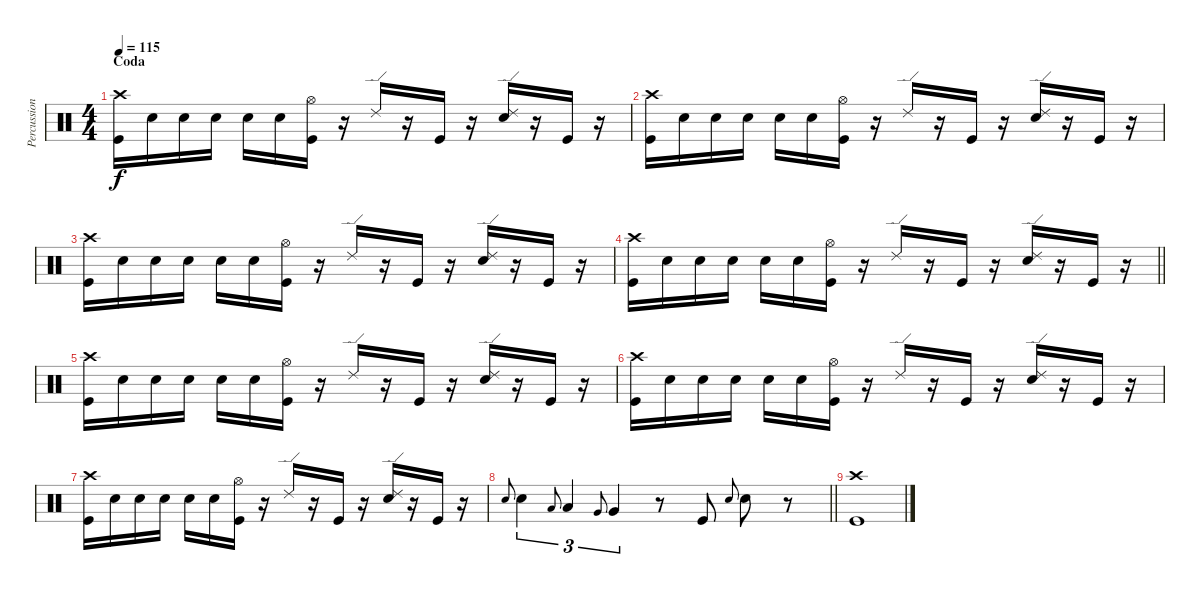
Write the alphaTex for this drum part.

\track ("Percussion" "Percussion") {instrument percussion}
\staff {score}
\articulation defaults
\ts (4 4)
\section ("" "Coda")
\tempo 115
\clef neutral
\ks c
("Crash high (hit)" "Kick (hit)").16{dy f} "Electric Snare (hit)".16 "Electric Snare (hit)".16 "Electric Snare (hit)".16 "Electric Snare (hit)".16 "Electric Snare (hit)".16 ("Hi-Hat (open)" "Kick (hit)").16 r.16 "Ride (edge) 2".16 r.16 "Kick (hit)".16 r.16 ("Ride (edge) 2" "Electric Snare (hit)").16 r.16 "Kick (hit)".16 r.16 |
("Crash high (hit)" "Kick (hit)").16 "Electric Snare (hit)".16 "Electric Snare (hit)".16 "Electric Snare (hit)".16 "Electric Snare (hit)".16 "Electric Snare (hit)".16 ("Hi-Hat (open)" "Kick (hit)").16 r.16 "Ride (edge) 2".16 r.16 "Kick (hit)".16 r.16 ("Ride (edge) 2" "Electric Snare (hit)").16 r.16 "Kick (hit)".16 r.16 |
("Crash high (hit)" "Kick (hit)").16 "Electric Snare (hit)".16 "Electric Snare (hit)".16 "Electric Snare (hit)".16 "Electric Snare (hit)".16 "Electric Snare (hit)".16 ("Hi-Hat (open)" "Kick (hit)").16 r.16 "Ride (edge) 2".16 r.16 "Kick (hit)".16 r.16 ("Ride (edge) 2" "Electric Snare (hit)").16 r.16 "Kick (hit)".16 r.16 |
\barLineRight lightlight
("Crash high (hit)" "Kick (hit)").16 "Electric Snare (hit)".16 "Electric Snare (hit)".16 "Electric Snare (hit)".16 "Electric Snare (hit)".16 "Electric Snare (hit)".16 ("Hi-Hat (open)" "Kick (hit)").16 r.16 "Ride (edge) 2".16 r.16 "Kick (hit)".16 r.16 ("Ride (edge) 2" "Electric Snare (hit)").16 r.16 "Kick (hit)".16 r.16 |
("Crash high (hit)" "Kick (hit)").16 "Electric Snare (hit)".16 "Electric Snare (hit)".16 "Electric Snare (hit)".16 "Electric Snare (hit)".16 "Electric Snare (hit)".16 ("Hi-Hat (open)" "Kick (hit)").16 r.16 "Ride (edge) 2".16 r.16 "Kick (hit)".16 r.16 ("Ride (edge) 2" "Electric Snare (hit)").16 r.16 "Kick (hit)".16 r.16 |
("Crash high (hit)" "Kick (hit)").16 "Electric Snare (hit)".16 "Electric Snare (hit)".16 "Electric Snare (hit)".16 "Electric Snare (hit)".16 "Electric Snare (hit)".16 ("Hi-Hat (open)" "Kick (hit)").16 r.16 "Ride (edge) 2".16 r.16 "Kick (hit)".16 r.16 ("Ride (edge) 2" "Electric Snare (hit)").16 r.16 "Kick (hit)".16 r.16 |
("Crash high (hit)" "Kick (hit)").16 "Electric Snare (hit)".16 "Electric Snare (hit)".16 "Electric Snare (hit)".16 "Electric Snare (hit)".16 "Electric Snare (hit)".16 ("Hi-Hat (open)" "Kick (hit)").16 r.16 "Ride (edge) 2".16 r.16 "Kick (hit)".16 r.16 ("Ride (edge) 2" "Electric Snare (hit)").16 r.16 "Kick (hit)".16 r.16 |
\barLineRight lightlight "Electric Snare (hit)".8{gr onbeat} "Electric Snare (hit)".4{tu (3 2)} "Low Tom (hit)".8{gr onbeat} "Low Tom (hit)".4{tu (3 2)} "Very Low Tom (hit)".8{gr onbeat} "Very Low Tom (hit)".4{tu (3 2)}
r.8 "Kick (hit)".8 "Electric Snare (hit)".8{gr onbeat} "Electric Snare (hit)".8 r.8 |
("Crash high (hit)" "Kick (hit)").1
